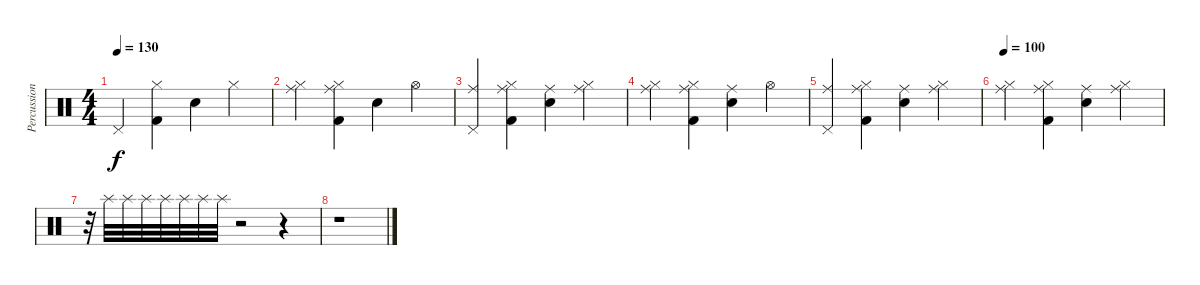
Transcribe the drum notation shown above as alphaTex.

\track ("Percussion" "Percussion") {instrument percussion}
\staff {score}
\articulation defaults
\ts (4 4)
\tempo 130
\clef neutral
\ks c "Pedal Hi-Hat (hit)".4{dy f}
("Hi-Hat (closed)" "Kick (hit) 2").4 "Snare (hit) 2".4 "Hi-Hat (closed)".4 |
("Ride (middle)" "Hi-Hat (closed)").4 ("Ride (middle)" "Hi-Hat (closed)" "Kick (hit) 2").4 "Snare (hit) 2".4 "Hi-Hat (open)".4 |
("Ride (middle)" "Pedal Hi-Hat (hit)").4 ("Ride (middle)" "Hi-Hat (closed)" "Kick (hit) 2").4 ("Ride (middle)" "Snare (hit) 2").4 ("Ride (middle)" "Hi-Hat (closed)").4 |
("Ride (middle)" "Hi-Hat (closed)").4 ("Ride (middle)" "Hi-Hat (closed)" "Kick (hit) 2").4 ("Ride (middle)" "Snare (hit) 2").4 "Hi-Hat (open)".4 |
("Ride (middle)" "Pedal Hi-Hat (hit)").4 ("Ride (middle)" "Hi-Hat (closed)" "Kick (hit) 2").4 ("Ride (middle)" "Snare (hit) 2").4 ("Ride (middle)" "Hi-Hat (closed)").4 |
\tempo 100
("Ride (middle)" "Hi-Hat (closed)").4 ("Ride (middle)" "Hi-Hat (closed)" "Kick (hit) 2").4 ("Ride (middle)" "Snare (hit) 2").4 ("Ride (middle)" "Hi-Hat (closed)").4 |
r.32{volume 0} "Splash (hit)".32{volume 16} "Splash (hit)".32 "Splash (hit)".32 "Splash (hit)".32 "Splash (hit)".32 "Splash (hit)".32 "Splash (hit)".32 r.2 r.4 |
r.1
